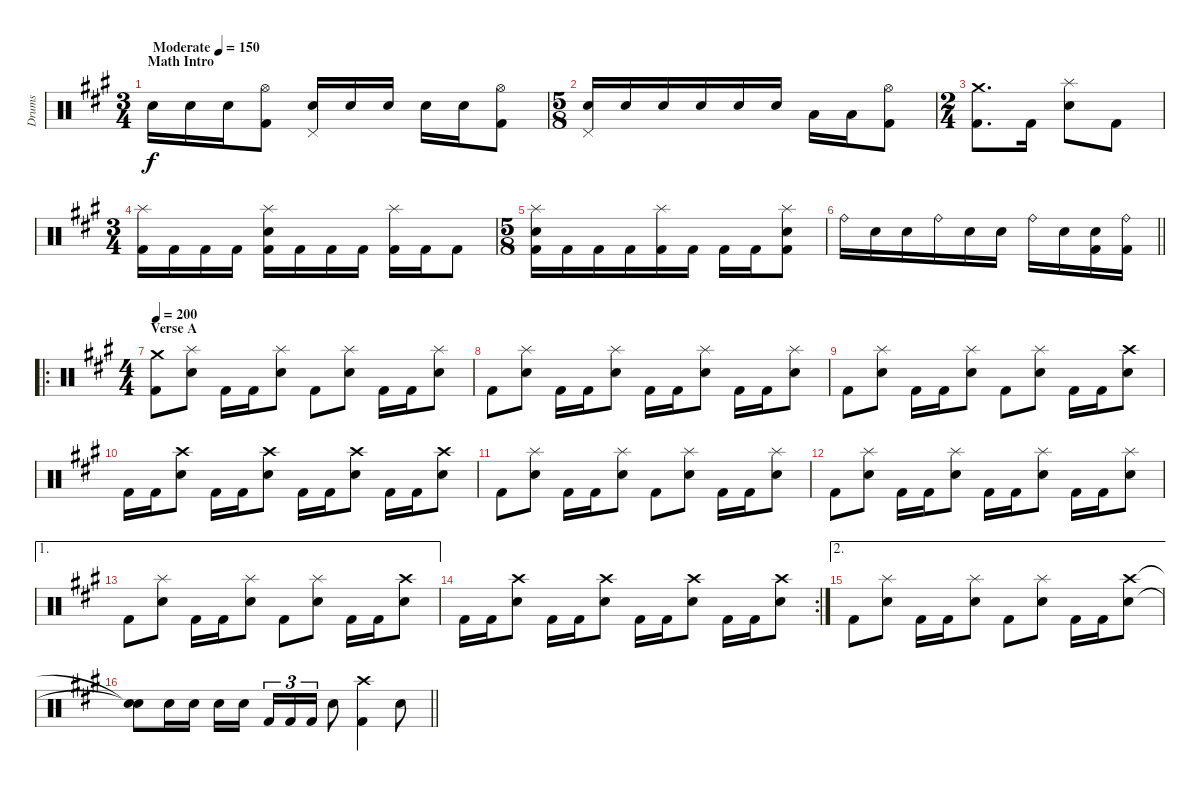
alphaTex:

\track ("Drums" "Drums") {instrument percussion}
\staff {score}
\articulation defaults
\ts (3 4)
\section ("" "Math Intro")
\tempo (150 "Moderate")
\clef neutral
\ks f#minor "Snare (hit) 2".16{dy f} "Snare (hit) 2".16 "Snare (hit) 2".16
("Hi-Hat (open)" "Kick (hit) 2").8 ("Pedal Hi-Hat (hit)" "Snare (hit) 2").16 "Snare (hit) 2".16 "Snare (hit) 2".16 "Snare (hit) 2".16 "Snare (hit) 2".16 ("Hi-Hat (open)" "Kick (hit) 2").8 |
\ts (5 8)
("Pedal Hi-Hat (hit)" "Snare (hit) 2").16 "Snare (hit) 2".16 "Snare (hit) 2".16 "Snare (hit) 2".16 "Snare (hit) 2".16 "Snare (hit) 2".16 "Low Tom (hit)".16 "Low Tom (hit)".16 ("Hi-Hat (open)" "Kick (hit) 2").8 |
\ts (2 4)
("Crash medium (hit)" "Kick (hit) 2").8{d} "Kick (hit) 2".16 ("Splash (hit)" "Snare (hit) 2").8 "Kick (hit) 2".8 |
\ts (3 4)
("Splash (hit)" "Kick (hit) 2").16 "Kick (hit) 2".16 "Kick (hit) 2".16 "Kick (hit) 2".16 ("Splash (hit)" "Snare (hit) 2" "Kick (hit) 2").16 "Kick (hit) 2".16 "Kick (hit) 2".16 "Kick (hit) 2".16 ("Splash (hit)" "Kick (hit) 2").16 "Kick (hit) 2".16 "Kick (hit) 2".8 |
\ts (5 8)
("Splash (hit)" "Snare (hit) 2" "Kick (hit) 2").16 "Kick (hit) 2".16 "Kick (hit) 2".16 "Kick (hit) 2".16 ("Splash (hit)" "Kick (hit) 2").16 "Kick (hit) 2".16 "Kick (hit) 2".16 "Kick (hit) 2".16 ("Splash (hit)" "Snare (hit) 2" "Kick (hit) 2").8 |
\barLineRight lightlight "Ride (bell)".16 "Snare (hit) 2".16 "Snare (hit) 2".16 "Ride (bell)".16 "Snare (hit) 2".16 "Snare (hit) 2".16 "Ride (bell)".16 "Snare (hit) 2".16
("Snare (hit) 2" "Kick (hit) 2").16 ("Ride (bell)" "Kick (hit) 2").16 |
\ro
\ts (4 4)
\section ("" "Verse A")
\tempo 200
("Crash medium (hit)" "Kick (hit) 2").8 ("Splash (hit)" "Snare (hit) 2").8 "Kick (hit) 2".16 "Kick (hit) 2".16 ("Splash (hit)" "Snare (hit) 2").8 "Kick (hit) 2".8 ("Splash (hit)" "Snare (hit) 2").8 "Kick (hit) 2".16 "Kick (hit) 2".16 ("Splash (hit)" "Snare (hit) 2").8 |
"Kick (hit) 2".8 ("Splash (hit)" "Snare (hit) 2").8 "Kick (hit) 2".16 "Kick (hit) 2".16 ("Splash (hit)" "Snare (hit) 2").8 "Kick (hit) 2".16 "Kick (hit) 2".16 ("Splash (hit)" "Snare (hit) 2").8 "Kick (hit) 2".16 "Kick (hit) 2".16 ("Splash (hit)" "Snare (hit) 2").8 |
"Kick (hit) 2".8 ("Splash (hit)" "Snare (hit) 2").8 "Kick (hit) 2".16 "Kick (hit) 2".16 ("Splash (hit)" "Snare (hit) 2").8 "Kick (hit) 2".8 ("Splash (hit)" "Snare (hit) 2").8 "Kick (hit) 2".16 "Kick (hit) 2".16 ("Crash high (hit)" "Snare (hit) 2").8 |
"Kick (hit) 2".16 "Kick (hit) 2".16 ("Crash high (hit)" "Snare (hit) 2").8 "Kick (hit) 2".16 "Kick (hit) 2".16 ("Crash high (hit)" "Snare (hit) 2").8 "Kick (hit) 2".16 "Kick (hit) 2".16 ("Crash high (hit)" "Snare (hit) 2").8 "Kick (hit) 2".16 "Kick (hit) 2".16 ("Crash high (hit)" "Snare (hit) 2").8 |
"Kick (hit) 2".8 ("Splash (hit)" "Snare (hit) 2").8 "Kick (hit) 2".16 "Kick (hit) 2".16 ("Splash (hit)" "Snare (hit) 2").8 "Kick (hit) 2".8 ("Splash (hit)" "Snare (hit) 2").8 "Kick (hit) 2".16 "Kick (hit) 2".16 ("Splash (hit)" "Snare (hit) 2").8 |
"Kick (hit) 2".8 ("Splash (hit)" "Snare (hit) 2").8 "Kick (hit) 2".16 "Kick (hit) 2".16 ("Splash (hit)" "Snare (hit) 2").8 "Kick (hit) 2".16 "Kick (hit) 2".16 ("Splash (hit)" "Snare (hit) 2").8 "Kick (hit) 2".16 "Kick (hit) 2".16 ("Splash (hit)" "Snare (hit) 2").8 |
\ae 1 "Kick (hit) 2".8
("Splash (hit)" "Snare (hit) 2").8 "Kick (hit) 2".16 "Kick (hit) 2".16 ("Splash (hit)" "Snare (hit) 2").8 "Kick (hit) 2".8 ("Splash (hit)" "Snare (hit) 2").8 "Kick (hit) 2".16 "Kick (hit) 2".16 ("Crash high (hit)" "Snare (hit) 2").8 |
\rc 2 "Kick (hit) 2".16 "Kick (hit) 2".16
("Crash high (hit)" "Snare (hit) 2").8 "Kick (hit) 2".16 "Kick (hit) 2".16 ("Crash high (hit)" "Snare (hit) 2").8 "Kick (hit) 2".16 "Kick (hit) 2".16 ("Crash high (hit)" "Snare (hit) 2").8 "Kick (hit) 2".16 "Kick (hit) 2".16 ("Crash high (hit)" "Snare (hit) 2").8 |
\ae 2 "Kick (hit) 2".8
("Splash (hit)" "Snare (hit) 2").8 "Kick (hit) 2".16 "Kick (hit) 2".16 ("Splash (hit)" "Snare (hit) 2").8 "Kick (hit) 2".8 ("Splash (hit)" "Snare (hit) 2").8 "Kick (hit) 2".16 "Kick (hit) 2".16 ("Crash high (hit)" "Snare (hit) 2").8 |
\barLineRight lightlight
("Snare (hit)"{t} "Snare (hit)"{t}).8 "Snare (hit) 2".16 "Snare (hit) 2".16 "Snare (hit) 2".16 "Snare (hit) 2".16{beam splitsecondary} "Kick (hit) 2".16{tu (3 2)} "Kick (hit) 2".16{tu (3 2)} "Kick (hit) 2".16{tu (3 2)} "Snare (hit) 2".8 ("Crash high (hit)" "Kick (hit) 2").4 "Snare (hit) 2".8
